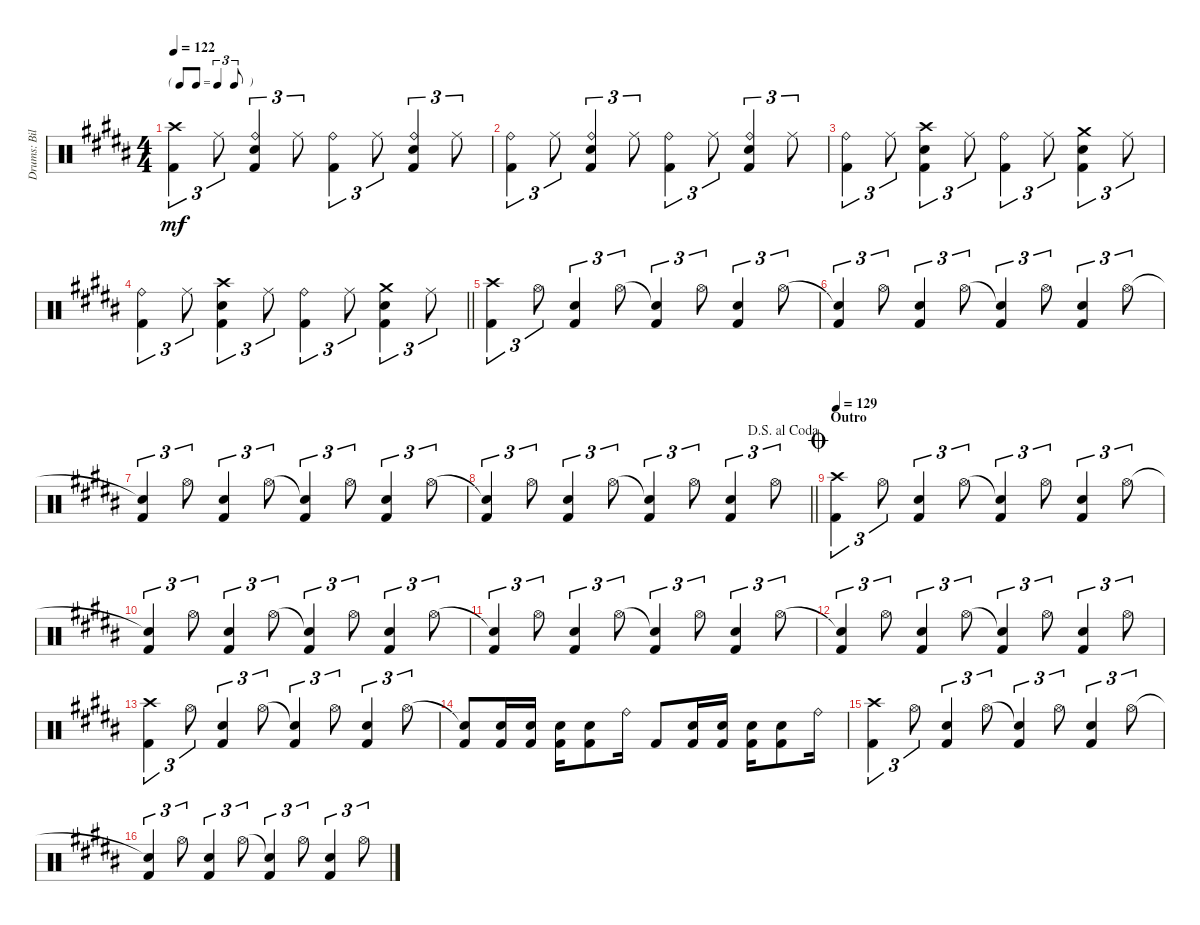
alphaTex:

\track ("Drums: Bill" "Drums: Bil") {instrument percussion}
\staff {score}
\articulation defaults
\ts (4 4)
\tf triplet8th
\tempo 122
\clef neutral
\ks b
("Crash high (hit)" "Kick (hit) 2").4{tu (3 2) dy mf} "Ride (middle)".8{tu (3 2)} ("Ride (bell)" "Electric Snare (hit)" "Kick (hit) 2").4{tu (3 2)} "Ride (middle)".8{tu (3 2)} ("Ride (bell)" "Kick (hit) 2").4{tu (3 2)} "Ride (middle)".8{tu (3 2)} ("Ride (bell)" "Electric Snare (hit)" "Kick (hit) 2").4{tu (3 2)} "Ride (middle)".8{tu (3 2)} |
("Ride (bell)" "Kick (hit) 2").4{tu (3 2)} "Ride (middle)".8{tu (3 2)} ("Ride (bell)" "Electric Snare (hit)" "Kick (hit) 2").4{tu (3 2)} "Ride (middle)".8{tu (3 2)} ("Ride (bell)" "Kick (hit) 2").4{tu (3 2)} "Ride (middle)".8{tu (3 2)} ("Ride (bell)" "Electric Snare (hit)" "Kick (hit) 2").4{tu (3 2)} "Ride (middle)".8{tu (3 2)} |
("Ride (bell)" "Kick (hit) 2").4{tu (3 2)} "Ride (middle)".8{tu (3 2)} ("Crash high (hit)" "Electric Snare (hit)" "Kick (hit) 2").4{tu (3 2)} "Ride (middle)".8{tu (3 2)} ("Ride (bell)" "Kick (hit) 2").4{tu (3 2)} "Ride (middle)".8{tu (3 2)} ("Crash medium (hit)" "Electric Snare (hit)" "Kick (hit) 2").4{tu (3 2)} "Ride (middle)".8{tu (3 2)} |
\barLineRight lightlight
("Ride (bell)" "Kick (hit) 2").4{tu (3 2)} "Ride (middle)".8{tu (3 2)} ("Crash high (hit)" "Electric Snare (hit)" "Kick (hit) 2").4{tu (3 2)} "Ride (middle)".8{tu (3 2)} ("Ride (bell)" "Kick (hit) 2").4{tu (3 2)} "Ride (middle)".8{tu (3 2)} ("Crash medium (hit)" "Electric Snare (hit)" "Kick (hit) 2").4{tu (3 2)} "Ride (middle)".8{tu (3 2)} |
("Crash high (hit)" "Kick (hit) 2").4{tu (3 2)} "Hi-Hat (open)".8{tu (3 2)} ("Electric Snare (hit)" "Kick (hit) 2").4{tu (3 2)} "Hi-Hat (open)".8{tu (3 2)} ("Snare (hit)"{t} "Kick (hit) 2").4{tu (3 2)} "Hi-Hat (open)".8{tu (3 2)} ("Electric Snare (hit)" "Kick (hit) 2").4{tu (3 2)} "Hi-Hat (open)".8{tu (3 2)} |
("Snare (hit)"{t} "Kick (hit) 2").4{tu (3 2)} "Hi-Hat (open)".8{tu (3 2)} ("Electric Snare (hit)" "Kick (hit) 2").4{tu (3 2)} "Hi-Hat (open)".8{tu (3 2)} ("Snare (hit)"{t} "Kick (hit) 2").4{tu (3 2)} "Hi-Hat (open)".8{tu (3 2)} ("Electric Snare (hit)" "Kick (hit) 2").4{tu (3 2)} "Hi-Hat (open)".8{tu (3 2)} |
("Snare (hit)"{t} "Kick (hit) 2").4{tu (3 2)} "Hi-Hat (open)".8{tu (3 2)} ("Electric Snare (hit)" "Kick (hit) 2").4{tu (3 2)} "Hi-Hat (open)".8{tu (3 2)} ("Snare (hit)"{t} "Kick (hit) 2").4{tu (3 2)} "Hi-Hat (open)".8{tu (3 2)} ("Electric Snare (hit)" "Kick (hit) 2").4{tu (3 2)} "Hi-Hat (open)".8{tu (3 2)} |
\jump dalsegnoalcoda
\barLineRight lightlight
("Snare (hit)"{t} "Kick (hit) 2").4{tu (3 2)} "Hi-Hat (open)".8{tu (3 2)} ("Electric Snare (hit)" "Kick (hit) 2").4{tu (3 2)} "Hi-Hat (open)".8{tu (3 2)} ("Snare (hit)"{t} "Kick (hit) 2").4{tu (3 2)} "Hi-Hat (open)".8{tu (3 2)} ("Electric Snare (hit)" "Kick (hit) 2").4{tu (3 2)} "Hi-Hat (open)".8{tu (3 2)} |
\section ("" "Outro")
\jump coda
\tempo 129
("Crash high (hit)" "Kick (hit) 2").4{tu (3 2)} "Hi-Hat (open)".8{tu (3 2)} ("Electric Snare (hit)" "Kick (hit) 2").4{tu (3 2)} "Hi-Hat (open)".8{tu (3 2)} ("Snare (hit)"{t} "Kick (hit) 2").4{tu (3 2)} "Hi-Hat (open)".8{tu (3 2)} ("Electric Snare (hit)" "Kick (hit) 2").4{tu (3 2)} "Hi-Hat (open)".8{tu (3 2)} |
("Snare (hit)"{t} "Kick (hit) 2").4{tu (3 2)} "Hi-Hat (open)".8{tu (3 2)} ("Electric Snare (hit)" "Kick (hit) 2").4{tu (3 2)} "Hi-Hat (open)".8{tu (3 2)} ("Snare (hit)"{t} "Kick (hit) 2").4{tu (3 2)} "Hi-Hat (open)".8{tu (3 2)} ("Electric Snare (hit)" "Kick (hit) 2").4{tu (3 2)} "Hi-Hat (open)".8{tu (3 2)} |
("Snare (hit)"{t} "Kick (hit) 2").4{tu (3 2)} "Hi-Hat (open)".8{tu (3 2)} ("Electric Snare (hit)" "Kick (hit) 2").4{tu (3 2)} "Hi-Hat (open)".8{tu (3 2)} ("Snare (hit)"{t} "Kick (hit) 2").4{tu (3 2)} "Hi-Hat (open)".8{tu (3 2)} ("Electric Snare (hit)" "Kick (hit) 2").4{tu (3 2)} "Hi-Hat (open)".8{tu (3 2)} |
("Snare (hit)"{t} "Kick (hit) 2").4{tu (3 2)} "Hi-Hat (open)".8{tu (3 2)} ("Electric Snare (hit)" "Kick (hit) 2").4{tu (3 2)} "Hi-Hat (open)".8{tu (3 2)} ("Snare (hit)"{t} "Kick (hit) 2").4{tu (3 2)} "Hi-Hat (open)".8{tu (3 2)} ("Electric Snare (hit)" "Kick (hit) 2").4{tu (3 2)} "Hi-Hat (open)".8{tu (3 2)} |
("Crash high (hit)" "Kick (hit) 2").4{tu (3 2)} "Hi-Hat (open)".8{tu (3 2)} ("Electric Snare (hit)" "Kick (hit) 2").4{tu (3 2)} "Hi-Hat (open)".8{tu (3 2)} ("Snare (hit)"{t} "Kick (hit) 2").4{tu (3 2)} "Hi-Hat (open)".8{tu (3 2)} ("Electric Snare (hit)" "Kick (hit) 2").4{tu (3 2)} "Hi-Hat (open)".8{tu (3 2)} |
("Snare (hit)"{t} "Kick (hit) 2").8 ("Electric Snare (hit)" "Kick (hit) 2").16 ("Electric Snare (hit)" "Kick (hit) 2").16 ("Electric Snare (hit)" "Kick (hit) 2").16 ("Electric Snare (hit)" "Kick (hit) 2").8 "Ride (bell)".16 "Kick (hit) 2".8 ("Electric Snare (hit)" "Kick (hit) 2").16 ("Electric Snare (hit)" "Kick (hit) 2").16 ("Electric Snare (hit)" "Kick (hit) 2").16 ("Electric Snare (hit)" "Kick (hit) 2").8 "Ride (bell)".16 |
("Crash high (hit)" "Kick (hit) 2").4{tu (3 2)} "Hi-Hat (open)".8{tu (3 2)} ("Electric Snare (hit)" "Kick (hit) 2").4{tu (3 2)} "Hi-Hat (open)".8{tu (3 2)} ("Snare (hit)"{t} "Kick (hit) 2").4{tu (3 2)} "Hi-Hat (open)".8{tu (3 2)} ("Electric Snare (hit)" "Kick (hit) 2").4{tu (3 2)} "Hi-Hat (open)".8{tu (3 2)} |
("Snare (hit)"{t} "Kick (hit) 2").4{tu (3 2)} "Hi-Hat (open)".8{tu (3 2)} ("Electric Snare (hit)" "Kick (hit) 2").4{tu (3 2)} "Hi-Hat (open)".8{tu (3 2)} ("Snare (hit)"{t} "Kick (hit) 2").4{tu (3 2)} "Hi-Hat (open)".8{tu (3 2)} ("Electric Snare (hit)" "Kick (hit) 2").4{tu (3 2)} "Hi-Hat (open)".8{tu (3 2)}
